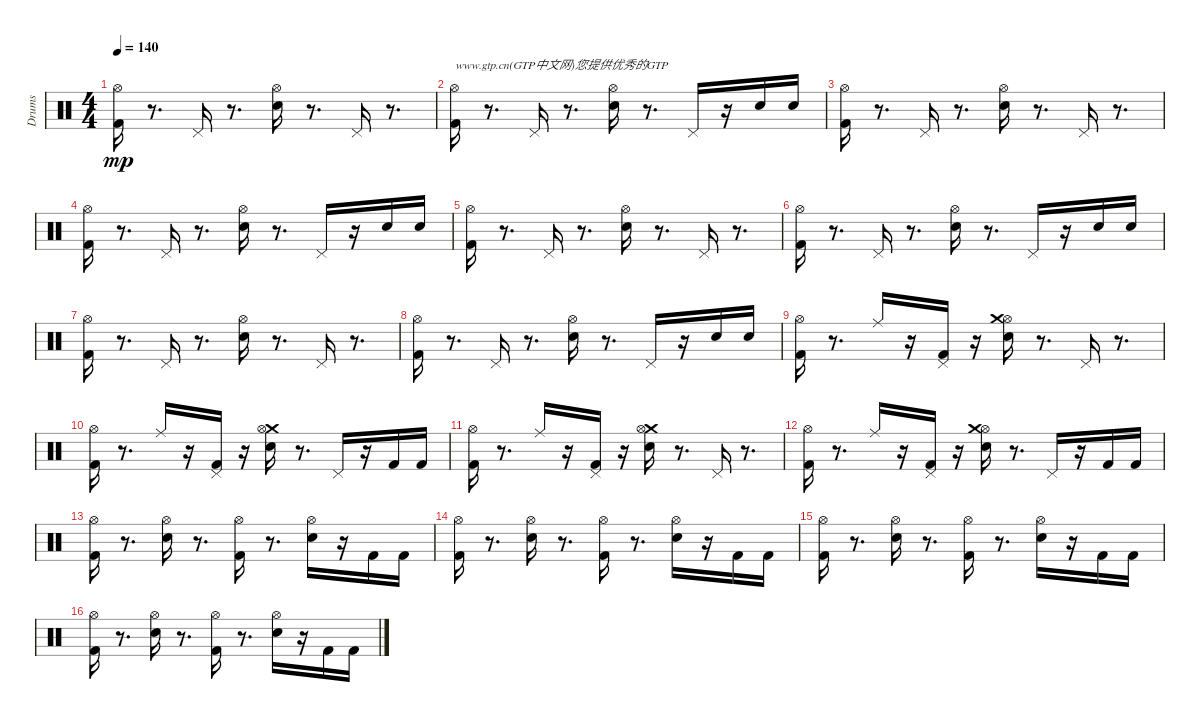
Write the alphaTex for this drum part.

\track ("Drums" "Drums") {instrument percussion}
\staff {score}
\articulation defaults
\ts (4 4)
\tempo 140
\clef neutral
\ks c
("Kick (hit) 2" "Hi-Hat (open)").16{dy mp} r.8{d} "Pedal Hi-Hat (hit)".16 r.8{d} ("Electric Snare (hit)" "Hi-Hat (open)").16 r.8{d} "Pedal Hi-Hat (hit)".16 r.8{d} |
("Kick (hit) 2" "Hi-Hat (open)").16{txt "www.gtp.cn(GTP中文网)您提供优秀的GTP"} r.8{d} "Pedal Hi-Hat (hit)".16 r.8{d} ("Electric Snare (hit)" "Hi-Hat (open)").16 r.8{d} "Pedal Hi-Hat (hit)".16 r.16 "Electric Snare (hit)".16 "Electric Snare (hit)".16 |
("Kick (hit) 2" "Hi-Hat (open)").16 r.8{d} "Pedal Hi-Hat (hit)".16 r.8{d} ("Hi-Hat (open)" "Electric Snare (hit)").16 r.8{d} "Pedal Hi-Hat (hit)".16 r.8{d} |
("Kick (hit) 2" "Hi-Hat (open)").16 r.8{d} "Pedal Hi-Hat (hit)".16 r.8{d} ("Electric Snare (hit)" "Hi-Hat (open)").16 r.8{d} "Pedal Hi-Hat (hit)".16 r.16 "Electric Snare (hit)".16 "Electric Snare (hit)".16 |
("Kick (hit) 2" "Hi-Hat (open)").16 r.8{d} "Pedal Hi-Hat (hit)".16 r.8{d} ("Electric Snare (hit)" "Hi-Hat (open)").16 r.8{d} "Pedal Hi-Hat (hit)".16 r.8{d} |
("Hi-Hat (open)" "Kick (hit) 2").16 r.8{d} "Pedal Hi-Hat (hit)".16 r.8{d} ("Hi-Hat (open)" "Electric Snare (hit)").16 r.8{d} "Pedal Hi-Hat (hit)".16 r.16 "Electric Snare (hit)".16 "Electric Snare (hit)".16 |
("Hi-Hat (open)" "Kick (hit) 2").16 r.8{d} "Pedal Hi-Hat (hit)".16 r.8{d} ("Hi-Hat (open)" "Electric Snare (hit)").16 r.8{d} "Pedal Hi-Hat (hit)".16 r.8{d} |
("Hi-Hat (open)" "Kick (hit) 2").16 r.8{d} "Pedal Hi-Hat (hit)".16 r.8{d} ("Hi-Hat (open)" "Electric Snare (hit)").16 r.8{d} "Pedal Hi-Hat (hit)".16 r.16 "Electric Snare (hit)".16 "Electric Snare (hit)".16 |
("Kick (hit) 2" "Hi-Hat (open)").16 r.8{d} "Ride (middle)".16 r.16 ("Pedal Hi-Hat (hit)" "Kick (hit) 2").16 r.16 ("Electric Snare (hit)" "Hi-Hat (open)" "Crash medium (hit)").16 r.8{d} "Pedal Hi-Hat (hit)".16 r.8{d} |
("Kick (hit) 2" "Hi-Hat (open)").16 r.8{d} "Ride (middle)".16 r.16 ("Kick (hit) 2" "Pedal Hi-Hat (hit)").16 r.16 ("Electric Snare (hit)" "Crash medium (hit)" "Hi-Hat (open)").16 r.8{d} "Pedal Hi-Hat (hit)".16 r.16 "Kick (hit) 2".16 "Kick (hit) 2".16 |
("Hi-Hat (open)" "Kick (hit) 2").16 r.8{d} "Ride (middle)".16 r.16 ("Kick (hit) 2" "Pedal Hi-Hat (hit)").16 r.16 ("Crash medium (hit)" "Hi-Hat (open)" "Electric Snare (hit)").16 r.8{d} "Pedal Hi-Hat (hit)".16 r.8{d} |
("Hi-Hat (open)" "Kick (hit) 2").16 r.8{d} "Ride (middle)".16 r.16 ("Pedal Hi-Hat (hit)" "Kick (hit) 2").16 r.16 ("Electric Snare (hit)" "Hi-Hat (open)" "Crash medium (hit)").16 r.8{d} "Pedal Hi-Hat (hit)".16 r.16 "Kick (hit) 2".16 "Kick (hit) 2".16 |
("Kick (hit) 2" "Hi-Hat (open)").16 r.8{d} ("Hi-Hat (open)" "Electric Snare (hit)").16 r.8{d} ("Hi-Hat (open)" "Kick (hit) 2").16 r.8{d} ("Hi-Hat (open)" "Electric Snare (hit)").16 r.16 "Kick (hit) 2".16 "Kick (hit) 2".16 |
("Hi-Hat (open)" "Kick (hit) 2").16 r.8{d} ("Hi-Hat (open)" "Electric Snare (hit)").16 r.8{d} ("Hi-Hat (open)" "Kick (hit) 2").16 r.8{d} ("Hi-Hat (open)" "Electric Snare (hit)").16 r.16 "Kick (hit) 2".16 "Kick (hit) 2".16 |
("Kick (hit) 2" "Hi-Hat (open)").16 r.8{d} ("Electric Snare (hit)" "Hi-Hat (open)").16 r.8{d} ("Hi-Hat (open)" "Kick (hit) 2").16 r.8{d} ("Electric Snare (hit)" "Hi-Hat (open)").16 r.16 "Kick (hit) 2".16 "Kick (hit) 2".16 |
("Kick (hit) 2" "Hi-Hat (open)").16 r.8{d} ("Hi-Hat (open)" "Electric Snare (hit)").16 r.8{d} ("Hi-Hat (open)" "Kick (hit) 2").16 r.8{d} ("Hi-Hat (open)" "Electric Snare (hit)").16 r.16 "Kick (hit) 2".16 "Kick (hit) 2".16
